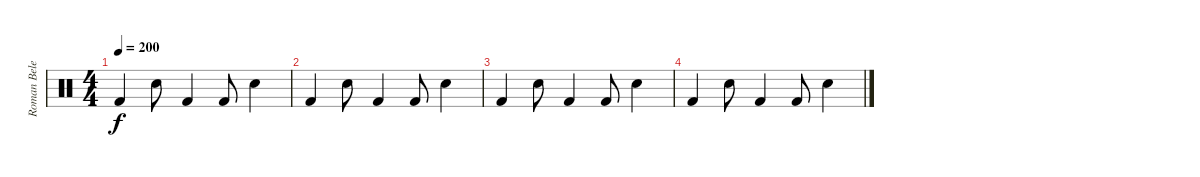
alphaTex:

\track ("Roman Belenkiy" "Roman Bele") {instrument percussion}
\staff {score}
\articulation defaults
\ts (4 4)
\tempo 200
\clef neutral
\ks c "Kick (hit) 2".4{dy f volume 0} "Snare (hit) 2".8 "Kick (hit) 2".4 "Kick (hit) 2".8 "Snare (hit) 2".4
|
"Kick (hit) 2".4 "Snare (hit) 2".8 "Kick (hit) 2".4 "Kick (hit) 2".8 "Snare (hit) 2".4 |
"Kick (hit) 2".4 "Snare (hit) 2".8 "Kick (hit) 2".4 "Kick (hit) 2".8 "Snare (hit) 2".4 |
"Kick (hit) 2".4 "Snare (hit) 2".8 "Kick (hit) 2".4 "Kick (hit) 2".8 "Snare (hit) 2".4
